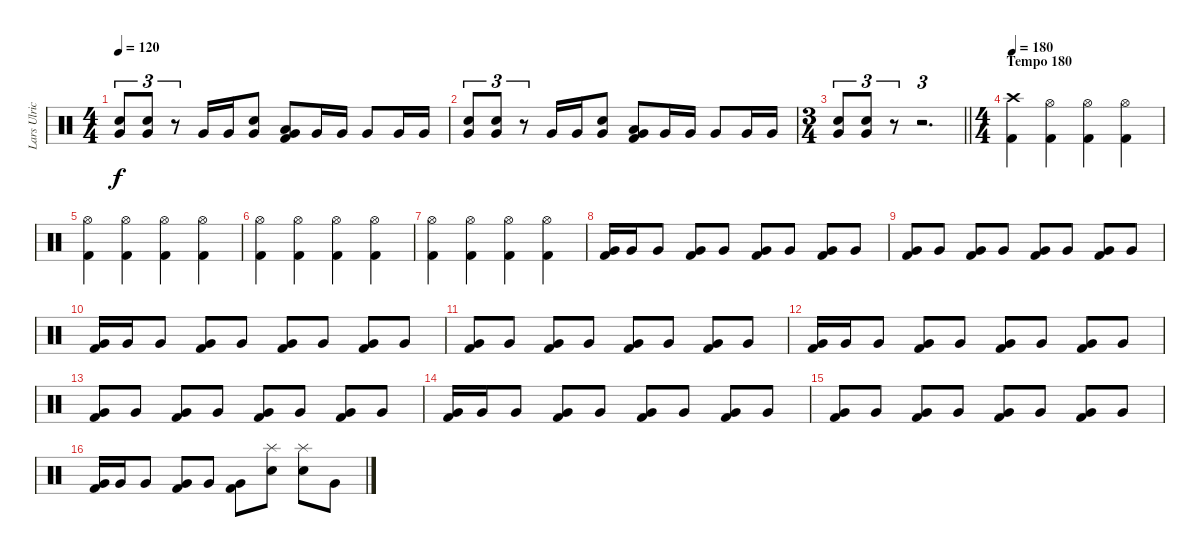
\track ("Lars Ulrich" "Lars Ulric") {instrument percussion}
\staff {score}
\articulation defaults
\ts (4 4)
\tempo 120
\clef neutral
\ks c
("Very Low Tom (hit)" "Electric Snare (hit)").8{tu (3 2) dy f} ("Very Low Tom (hit)" "Electric Snare (hit)").8{tu (3 2)} r.8{tu (3 2)} "Very Low Tom (hit)".16 "Very Low Tom (hit)".16 ("Very Low Tom (hit)" "Electric Snare (hit)").8 ("Low Tom (hit)" "Very Low Tom (hit)" "Kick (hit) 2").8 "Very Low Tom (hit)".16 "Very Low Tom (hit)".16 "Very Low Tom (hit)".8 "Very Low Tom (hit)".16 "Very Low Tom (hit)".16 |
("Very Low Tom (hit)" "Electric Snare (hit)").8{tu (3 2)} ("Very Low Tom (hit)" "Electric Snare (hit)").8{tu (3 2)} r.8{tu (3 2)} "Very Low Tom (hit)".16 "Very Low Tom (hit)".16 ("Very Low Tom (hit)" "Electric Snare (hit)").8 ("Low Tom (hit)" "Very Low Tom (hit)" "Kick (hit) 2").8 "Very Low Tom (hit)".16 "Very Low Tom (hit)".16 "Very Low Tom (hit)".8 "Very Low Tom (hit)".16 "Very Low Tom (hit)".16 |
\ts (3 4)
\barLineRight lightlight
("Very Low Tom (hit)" "Electric Snare (hit)").8{tu (3 2)} ("Very Low Tom (hit)" "Electric Snare (hit)").8{tu (3 2)} r.8{tu (3 2)} r.2{d tu (3 2)} |
\ts (4 4)
\section ("" "Tempo 180")
\tempo 180
("Crash high (hit)" "Kick (hit) 2").4 ("Hi-Hat (open)" "Kick (hit) 2").4 ("Hi-Hat (open)" "Kick (hit) 2").4 ("Hi-Hat (open)" "Kick (hit) 2").4 |
("Hi-Hat (open)" "Kick (hit) 2").4 ("Hi-Hat (open)" "Kick (hit) 2").4 ("Hi-Hat (open)" "Kick (hit) 2").4 ("Hi-Hat (open)" "Kick (hit) 2").4 |
("Hi-Hat (open)" "Kick (hit) 2").4 ("Hi-Hat (open)" "Kick (hit) 2").4 ("Hi-Hat (open)" "Kick (hit) 2").4 ("Hi-Hat (open)" "Kick (hit) 2").4 |
("Hi-Hat (open)" "Kick (hit) 2").4 ("Hi-Hat (open)" "Kick (hit) 2").4 ("Hi-Hat (open)" "Kick (hit) 2").4 ("Hi-Hat (open)" "Kick (hit) 2").4 |
("Very Low Tom (hit)" "Kick (hit) 2").16 "Very Low Tom (hit)".16 "Very Low Tom (hit)".8 ("Very Low Tom (hit)" "Kick (hit) 2").8 "Very Low Tom (hit)".8 ("Very Low Tom (hit)" "Kick (hit) 2").8 "Very Low Tom (hit)".8 ("Very Low Tom (hit)" "Kick (hit) 2").8 "Very Low Tom (hit)".8 |
("Very Low Tom (hit)" "Kick (hit) 2").8 "Very Low Tom (hit)".8 ("Very Low Tom (hit)" "Kick (hit) 2").8 "Very Low Tom (hit)".8 ("Very Low Tom (hit)" "Kick (hit) 2").8 "Very Low Tom (hit)".8 ("Very Low Tom (hit)" "Kick (hit) 2").8 "Very Low Tom (hit)".8 |
("Very Low Tom (hit)" "Kick (hit) 2").16 "Very Low Tom (hit)".16 "Very Low Tom (hit)".8 ("Very Low Tom (hit)" "Kick (hit) 2").8 "Very Low Tom (hit)".8 ("Very Low Tom (hit)" "Kick (hit) 2").8 "Very Low Tom (hit)".8 ("Very Low Tom (hit)" "Kick (hit) 2").8 "Very Low Tom (hit)".8 |
("Very Low Tom (hit)" "Kick (hit) 2").8 "Very Low Tom (hit)".8 ("Very Low Tom (hit)" "Kick (hit) 2").8 "Very Low Tom (hit)".8 ("Very Low Tom (hit)" "Kick (hit) 2").8 "Very Low Tom (hit)".8 ("Very Low Tom (hit)" "Kick (hit) 2").8 "Very Low Tom (hit)".8 |
("Very Low Tom (hit)" "Kick (hit) 2").16 "Very Low Tom (hit)".16 "Very Low Tom (hit)".8 ("Very Low Tom (hit)" "Kick (hit) 2").8 "Very Low Tom (hit)".8 ("Very Low Tom (hit)" "Kick (hit) 2").8 "Very Low Tom (hit)".8 ("Very Low Tom (hit)" "Kick (hit) 2").8 "Very Low Tom (hit)".8 |
("Very Low Tom (hit)" "Kick (hit) 2").8 "Very Low Tom (hit)".8 ("Very Low Tom (hit)" "Kick (hit) 2").8 "Very Low Tom (hit)".8 ("Very Low Tom (hit)" "Kick (hit) 2").8 "Very Low Tom (hit)".8 ("Very Low Tom (hit)" "Kick (hit) 2").8 "Very Low Tom (hit)".8 |
("Very Low Tom (hit)" "Kick (hit) 2").16 "Very Low Tom (hit)".16 "Very Low Tom (hit)".8 ("Very Low Tom (hit)" "Kick (hit) 2").8 "Very Low Tom (hit)".8 ("Very Low Tom (hit)" "Kick (hit) 2").8 "Very Low Tom (hit)".8 ("Very Low Tom (hit)" "Kick (hit) 2").8 "Very Low Tom (hit)".8 |
("Very Low Tom (hit)" "Kick (hit) 2").8 "Very Low Tom (hit)".8 ("Very Low Tom (hit)" "Kick (hit) 2").8 "Very Low Tom (hit)".8 ("Very Low Tom (hit)" "Kick (hit) 2").8 "Very Low Tom (hit)".8 ("Very Low Tom (hit)" "Kick (hit) 2").8 "Very Low Tom (hit)".8 |
("Very Low Tom (hit)" "Kick (hit) 2").16 "Very Low Tom (hit)".16 "Very Low Tom (hit)".8 ("Very Low Tom (hit)" "Kick (hit) 2").8 "Very Low Tom (hit)".8 ("Very Low Tom (hit)" "Kick (hit) 2").8 ("Splash (hit)" "Electric Snare (hit)").8 ("Splash (hit)" "Electric Snare (hit)").8 "Very Low Tom (hit)".8
